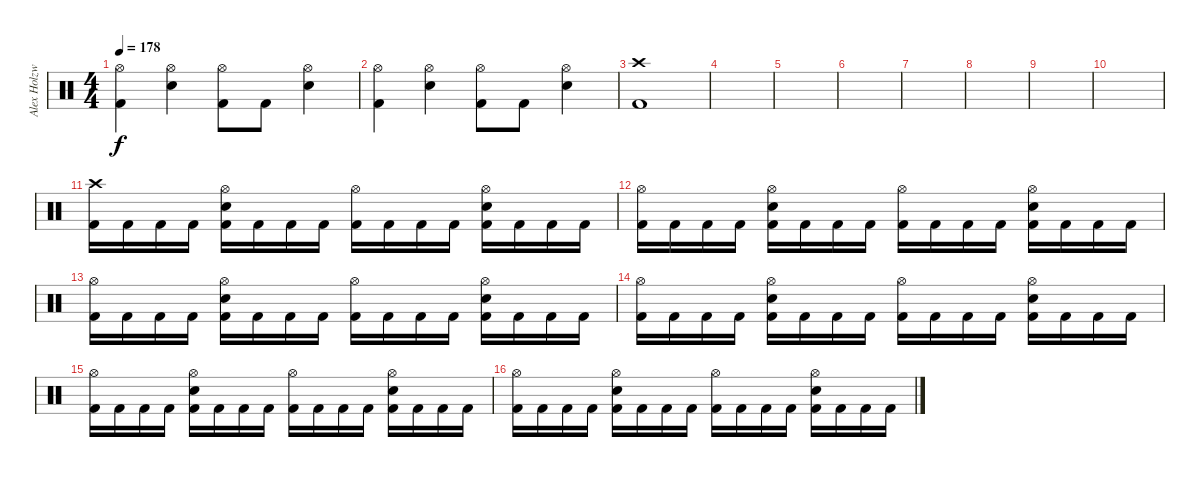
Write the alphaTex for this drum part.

\track ("Alex Holzwarth" "Alex Holzw") {instrument percussion}
\staff {score}
\articulation defaults
\ts (4 4)
\tempo 178
\clef neutral
\ks c
("Hi-Hat (open)" "Kick (hit) 2").4{dy f} ("Hi-Hat (open)" "Electric Snare (hit)").4 ("Hi-Hat (open)" "Kick (hit) 2").8 "Kick (hit) 2".8 ("Hi-Hat (open)" "Electric Snare (hit)").4 |
("Hi-Hat (open)" "Kick (hit) 2").4 ("Hi-Hat (open)" "Electric Snare (hit)").4 ("Hi-Hat (open)" "Kick (hit) 2").8 "Kick (hit) 2".8 ("Hi-Hat (open)" "Electric Snare (hit)").4 |
("Crash high (hit)" "Kick (hit) 2").1 |
|
|
|
|
|
|
|
("Crash high (hit)" "Kick (hit) 2").16 "Kick (hit) 2".16 "Kick (hit) 2".16 "Kick (hit) 2".16 ("Hi-Hat (open)" "Electric Snare (hit)" "Kick (hit) 2").16 "Kick (hit) 2".16 "Kick (hit) 2".16 "Kick (hit) 2".16 ("Hi-Hat (open)" "Kick (hit) 2").16 "Kick (hit) 2".16 "Kick (hit) 2".16 "Kick (hit) 2".16 ("Hi-Hat (open)" "Electric Snare (hit)" "Kick (hit) 2").16 "Kick (hit) 2".16 "Kick (hit) 2".16 "Kick (hit) 2".16 |
("Hi-Hat (open)" "Kick (hit) 2").16 "Kick (hit) 2".16 "Kick (hit) 2".16 "Kick (hit) 2".16 ("Hi-Hat (open)" "Electric Snare (hit)" "Kick (hit) 2").16 "Kick (hit) 2".16 "Kick (hit) 2".16 "Kick (hit) 2".16 ("Hi-Hat (open)" "Kick (hit) 2").16 "Kick (hit) 2".16 "Kick (hit) 2".16 "Kick (hit) 2".16 ("Hi-Hat (open)" "Electric Snare (hit)" "Kick (hit) 2").16 "Kick (hit) 2".16 "Kick (hit) 2".16 "Kick (hit) 2".16 |
("Hi-Hat (open)" "Kick (hit) 2").16 "Kick (hit) 2".16 "Kick (hit) 2".16 "Kick (hit) 2".16 ("Hi-Hat (open)" "Electric Snare (hit)" "Kick (hit) 2").16 "Kick (hit) 2".16 "Kick (hit) 2".16 "Kick (hit) 2".16 ("Hi-Hat (open)" "Kick (hit) 2").16 "Kick (hit) 2".16 "Kick (hit) 2".16 "Kick (hit) 2".16 ("Hi-Hat (open)" "Electric Snare (hit)" "Kick (hit) 2").16 "Kick (hit) 2".16 "Kick (hit) 2".16 "Kick (hit) 2".16 |
("Hi-Hat (open)" "Kick (hit) 2").16 "Kick (hit) 2".16 "Kick (hit) 2".16 "Kick (hit) 2".16 ("Hi-Hat (open)" "Electric Snare (hit)" "Kick (hit) 2").16 "Kick (hit) 2".16 "Kick (hit) 2".16 "Kick (hit) 2".16 ("Hi-Hat (open)" "Kick (hit) 2").16 "Kick (hit) 2".16 "Kick (hit) 2".16 "Kick (hit) 2".16 ("Hi-Hat (open)" "Electric Snare (hit)" "Kick (hit) 2").16 "Kick (hit) 2".16 "Kick (hit) 2".16 "Kick (hit) 2".16 |
("Hi-Hat (open)" "Kick (hit) 2").16 "Kick (hit) 2".16 "Kick (hit) 2".16 "Kick (hit) 2".16 ("Hi-Hat (open)" "Electric Snare (hit)" "Kick (hit) 2").16 "Kick (hit) 2".16 "Kick (hit) 2".16 "Kick (hit) 2".16 ("Hi-Hat (open)" "Kick (hit) 2").16 "Kick (hit) 2".16 "Kick (hit) 2".16 "Kick (hit) 2".16 ("Hi-Hat (open)" "Electric Snare (hit)" "Kick (hit) 2").16 "Kick (hit) 2".16 "Kick (hit) 2".16 "Kick (hit) 2".16 |
("Hi-Hat (open)" "Kick (hit) 2").16 "Kick (hit) 2".16 "Kick (hit) 2".16 "Kick (hit) 2".16 ("Hi-Hat (open)" "Electric Snare (hit)" "Kick (hit) 2").16 "Kick (hit) 2".16 "Kick (hit) 2".16 "Kick (hit) 2".16 ("Hi-Hat (open)" "Kick (hit) 2").16 "Kick (hit) 2".16 "Kick (hit) 2".16 "Kick (hit) 2".16 ("Hi-Hat (open)" "Electric Snare (hit)" "Kick (hit) 2").16 "Kick (hit) 2".16 "Kick (hit) 2".16 "Kick (hit) 2".16
